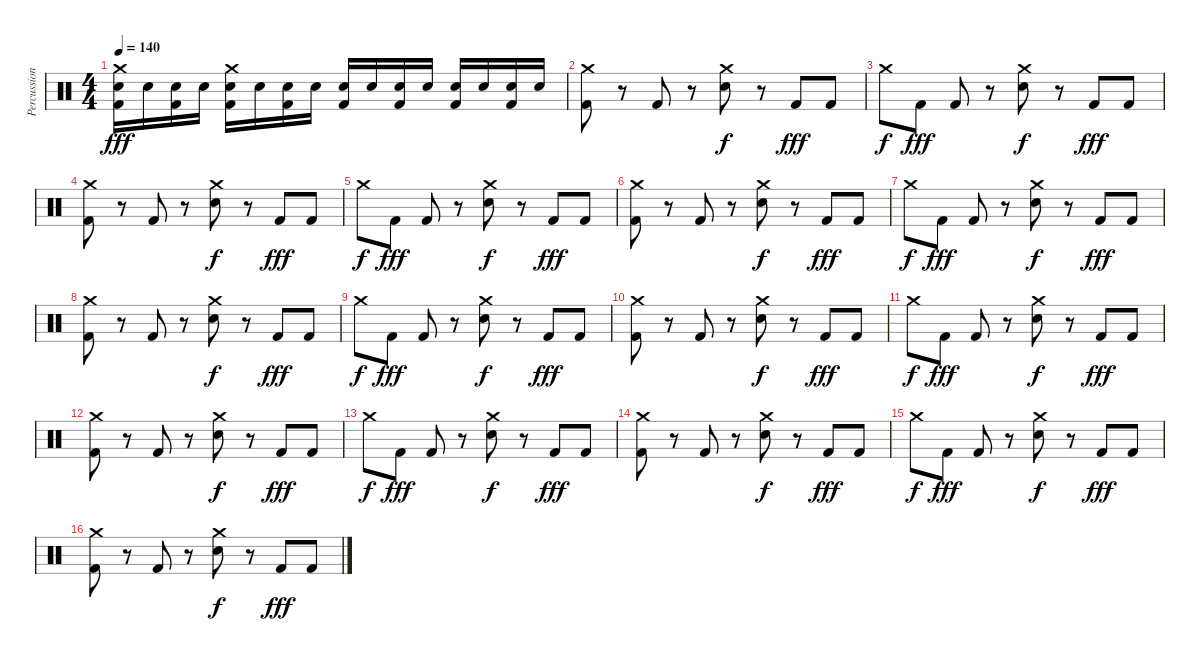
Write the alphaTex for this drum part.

\track ("Percussion" "Percussion") {instrument percussion}
\staff {score}
\articulation defaults
\ts (4 4)
\tempo 140
\clef neutral
\ks c
("Crash medium (hit)" "Electric Snare (hit)" "Kick (hit) 2").16{dy fff} "Electric Snare (hit)".16 ("Electric Snare (hit)" "Kick (hit) 2").16 "Electric Snare (hit)".16 ("Crash medium (hit)" "Electric Snare (hit)" "Kick (hit) 2").16 "Electric Snare (hit)".16 ("Electric Snare (hit)" "Kick (hit) 2").16 "Electric Snare (hit)".16 ("Electric Snare (hit)" "Kick (hit) 2").16 "Electric Snare (hit)".16 ("Electric Snare (hit)" "Kick (hit) 2").16 "Electric Snare (hit)".16 ("Electric Snare (hit)" "Kick (hit) 2").16 "Electric Snare (hit)".16 ("Electric Snare (hit)" "Kick (hit) 2").16 "Electric Snare (hit)".16 |
("Crash medium (hit)" "Kick (hit) 2").8 r.8 "Kick (hit) 2".8 r.8 ("Crash medium (hit)" "Electric Snare (hit)").8{dy f} r.8 "Kick (hit) 2".8{dy fff} "Kick (hit) 2".8 |
"Crash medium (hit)".8{dy f} "Kick (hit) 2".8{dy fff} "Kick (hit) 2".8 r.8 ("Crash medium (hit)" "Electric Snare (hit)").8{dy f} r.8 "Kick (hit) 2".8{dy fff} "Kick (hit) 2".8 |
("Crash medium (hit)" "Kick (hit) 2").8 r.8 "Kick (hit) 2".8 r.8 ("Crash medium (hit)" "Electric Snare (hit)").8{dy f} r.8 "Kick (hit) 2".8{dy fff} "Kick (hit) 2".8 |
"Crash medium (hit)".8{dy f} "Kick (hit) 2".8{dy fff} "Kick (hit) 2".8 r.8 ("Crash medium (hit)" "Electric Snare (hit)").8{dy f} r.8 "Kick (hit) 2".8{dy fff} "Kick (hit) 2".8 |
("Crash medium (hit)" "Kick (hit) 2").8 r.8 "Kick (hit) 2".8 r.8 ("Crash medium (hit)" "Electric Snare (hit)").8{dy f} r.8 "Kick (hit) 2".8{dy fff} "Kick (hit) 2".8 |
"Crash medium (hit)".8{dy f} "Kick (hit) 2".8{dy fff} "Kick (hit) 2".8 r.8 ("Crash medium (hit)" "Electric Snare (hit)").8{dy f} r.8 "Kick (hit) 2".8{dy fff} "Kick (hit) 2".8 |
("Crash medium (hit)" "Kick (hit) 2").8 r.8 "Kick (hit) 2".8 r.8 ("Crash medium (hit)" "Electric Snare (hit)").8{dy f} r.8 "Kick (hit) 2".8{dy fff} "Kick (hit) 2".8 |
"Crash medium (hit)".8{dy f} "Kick (hit) 2".8{dy fff} "Kick (hit) 2".8 r.8 ("Crash medium (hit)" "Electric Snare (hit)").8{dy f} r.8 "Kick (hit) 2".8{dy fff} "Kick (hit) 2".8 |
("Crash medium (hit)" "Kick (hit) 2").8 r.8 "Kick (hit) 2".8 r.8 ("Crash medium (hit)" "Electric Snare (hit)").8{dy f} r.8 "Kick (hit) 2".8{dy fff} "Kick (hit) 2".8 |
"Crash medium (hit)".8{dy f} "Kick (hit) 2".8{dy fff} "Kick (hit) 2".8 r.8 ("Crash medium (hit)" "Electric Snare (hit)").8{dy f} r.8 "Kick (hit) 2".8{dy fff} "Kick (hit) 2".8 |
("Crash medium (hit)" "Kick (hit) 2").8 r.8 "Kick (hit) 2".8 r.8 ("Crash medium (hit)" "Electric Snare (hit)").8{dy f} r.8 "Kick (hit) 2".8{dy fff} "Kick (hit) 2".8 |
"Crash medium (hit)".8{dy f} "Kick (hit) 2".8{dy fff} "Kick (hit) 2".8 r.8 ("Crash medium (hit)" "Electric Snare (hit)").8{dy f} r.8 "Kick (hit) 2".8{dy fff} "Kick (hit) 2".8 |
("Crash medium (hit)" "Kick (hit) 2").8 r.8 "Kick (hit) 2".8 r.8 ("Crash medium (hit)" "Electric Snare (hit)").8{dy f} r.8 "Kick (hit) 2".8{dy fff} "Kick (hit) 2".8 |
"Crash medium (hit)".8{dy f} "Kick (hit) 2".8{dy fff} "Kick (hit) 2".8 r.8 ("Crash medium (hit)" "Electric Snare (hit)").8{dy f} r.8 "Kick (hit) 2".8{dy fff} "Kick (hit) 2".8 |
("Crash medium (hit)" "Kick (hit) 2").8 r.8 "Kick (hit) 2".8 r.8 ("Crash medium (hit)" "Electric Snare (hit)").8{dy f} r.8 "Kick (hit) 2".8{dy fff} "Kick (hit) 2".8
